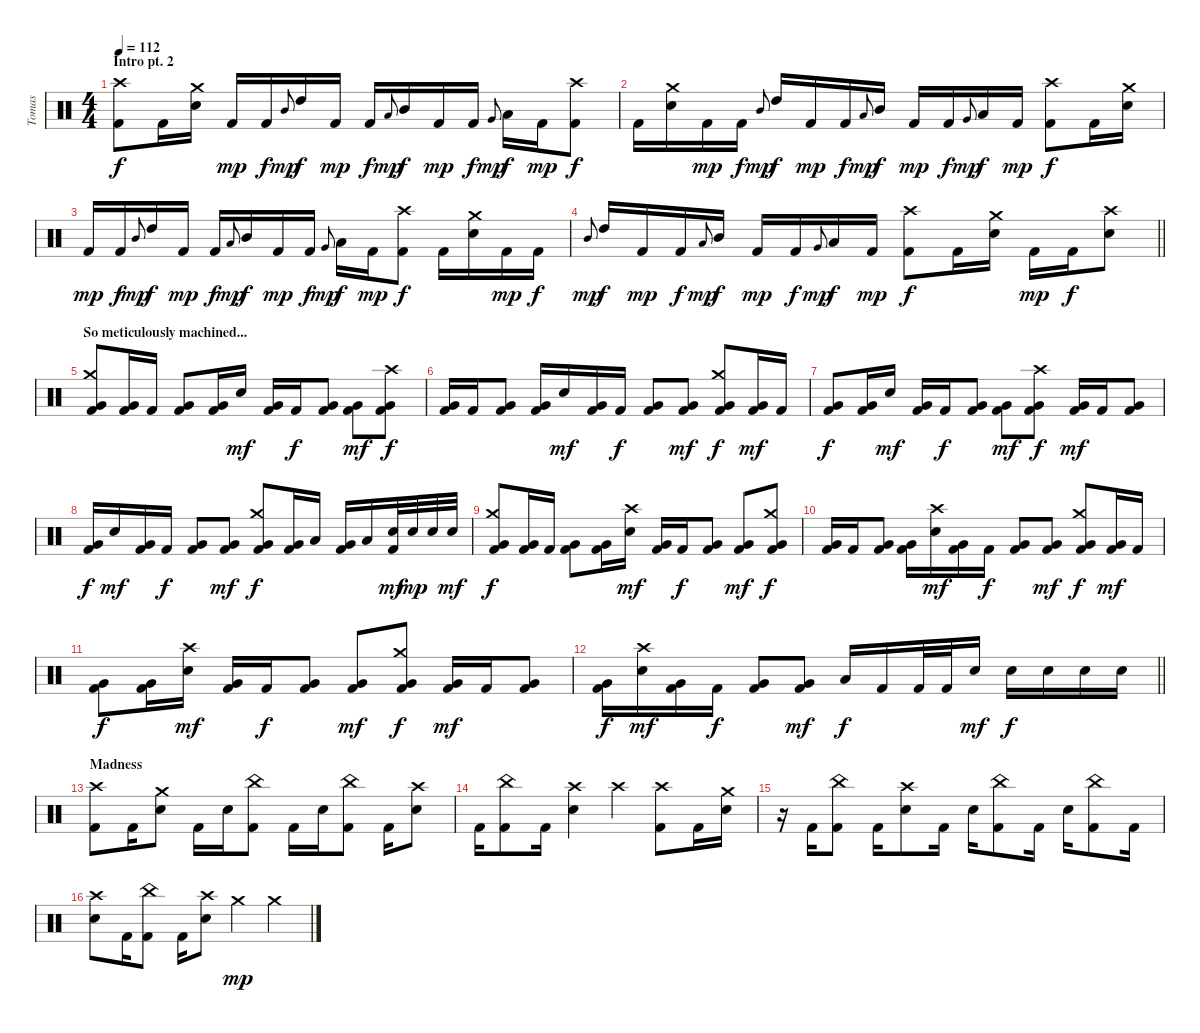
\track ("Tomas" "Tomas") {instrument percussion}
\staff {score}
\articulation defaults
\ts (4 4)
\section ("" "Intro pt. 2")
\tempo 112
\clef neutral
\ks c
("Crash high (hit)" "Kick (hit) 2").8{dy f} "Kick (hit) 2".16 ("Crash medium (hit)" "Electric Snare (hit)").16 "Kick (hit) 2".16{dy mp} "Kick (hit) 2".16{dy f} "Mid Tom (hit)".8{gr onbeat dy mp} "High Tom (hit)".16{dy f} "Kick (hit) 2".16{dy mp} "Kick (hit) 2".16{dy f} "Low Tom (hit)".8{gr onbeat dy mp} "Mid Tom (hit)".16{dy f} "Kick (hit) 2".16{dy mp} "Kick (hit) 2".16{dy f} "Very Low Tom (hit)".8{gr onbeat dy mp} "Low Tom (hit)".16{dy f} "Kick (hit) 2".16{dy mp} ("Crash high (hit)" "Kick (hit) 2").8{dy f} |
"Kick (hit) 2".16 ("Crash medium (hit)" "Electric Snare (hit)").16 "Kick (hit) 2".16{dy mp} "Kick (hit) 2".16{dy f} "Mid Tom (hit)".8{gr onbeat dy mp} "High Tom (hit)".16{dy f} "Kick (hit) 2".16{dy mp} "Kick (hit) 2".16{dy f} "Low Tom (hit)".8{gr onbeat dy mp} "Mid Tom (hit)".16{dy f} "Kick (hit) 2".16{dy mp} "Kick (hit) 2".16{dy f} "Very Low Tom (hit)".8{gr onbeat dy mp} "Low Tom (hit)".16{dy f} "Kick (hit) 2".16{dy mp} ("Crash high (hit)" "Kick (hit) 2").8{dy f} "Kick (hit) 2".16 ("Crash medium (hit)" "Electric Snare (hit)").16 |
"Kick (hit) 2".16{dy mp} "Kick (hit) 2".16{dy f} "Mid Tom (hit)".8{gr onbeat dy mp} "High Tom (hit)".16{dy f} "Kick (hit) 2".16{dy mp} "Kick (hit) 2".16{dy f} "Low Tom (hit)".8{gr onbeat dy mp} "Mid Tom (hit)".16{dy f} "Kick (hit) 2".16{dy mp} "Kick (hit) 2".16{dy f} "Very Low Tom (hit)".8{gr onbeat dy mp} "Low Tom (hit)".16{dy f} "Kick (hit) 2".16{dy mp} ("Crash high (hit)" "Kick (hit) 2").8{dy f} "Kick (hit) 2".16 ("Crash medium (hit)" "Electric Snare (hit)").16 "Kick (hit) 2".16{dy mp} "Kick (hit) 2".16{dy f} |
\barLineRight lightlight "Mid Tom (hit)".8{gr onbeat dy mp} "High Tom (hit)".16{dy f} "Kick (hit) 2".16{dy mp} "Kick (hit) 2".16{dy f} "Low Tom (hit)".8{gr onbeat dy mp} "Mid Tom (hit)".16{dy f} "Kick (hit) 2".16{dy mp} "Kick (hit) 2".16{dy f} "Very Low Tom (hit)".8{gr onbeat dy mp} "Low Tom (hit)".16{dy f} "Kick (hit) 2".16{dy mp}
("Crash high (hit)" "Kick (hit) 2").8{dy f} "Kick (hit) 2".16 ("Crash medium (hit)" "Electric Snare (hit)").16 "Kick (hit) 2".16{dy mp} "Kick (hit) 2".16{dy f} ("Crash high (hit)" "Electric Snare (hit)").8 |
\section ("" "So meticulously machined...")
("Crash medium (hit)" "Very Low Tom (hit)" "Kick (hit) 2").8 ("Very Low Tom (hit)" "Kick (hit) 2").16 "Kick (hit) 2".16 ("Very Low Tom (hit)" "Kick (hit) 2").8 ("Very Low Tom (hit)" "Kick (hit) 2").16 "Electric Snare (hit)".16{dy mf} ("Very Low Tom (hit)" "Kick (hit) 2").16 "Kick (hit) 2".16{dy f} ("Very Low Tom (hit)" "Kick (hit) 2").8 ("Very Low Tom (hit)" "Kick (hit) 2").8{dy mf} ("Crash high (hit)" "Very Low Tom (hit)" "Kick (hit) 2").8{dy f} |
("Very Low Tom (hit)" "Kick (hit) 2").16 "Kick (hit) 2".16 ("Very Low Tom (hit)" "Kick (hit) 2").8 ("Very Low Tom (hit)" "Kick (hit) 2").16 "Electric Snare (hit)".16{dy mf} ("Very Low Tom (hit)" "Kick (hit) 2").16 "Kick (hit) 2".16{dy f} ("Very Low Tom (hit)" "Kick (hit) 2").8 ("Very Low Tom (hit)" "Kick (hit) 2").8{dy mf} ("Crash medium (hit)" "Very Low Tom (hit)" "Kick (hit) 2").8{dy f} ("Very Low Tom (hit)" "Kick (hit) 2").16{dy mf} "Kick (hit) 2".16 |
("Very Low Tom (hit)" "Kick (hit) 2").8{dy f} ("Very Low Tom (hit)" "Kick (hit) 2").16 "Electric Snare (hit)".16{dy mf} ("Very Low Tom (hit)" "Kick (hit) 2").16 "Kick (hit) 2".16{dy f} ("Very Low Tom (hit)" "Kick (hit) 2").8 ("Very Low Tom (hit)" "Kick (hit) 2").8{dy mf} ("Crash high (hit)" "Very Low Tom (hit)" "Kick (hit) 2").8{dy f} ("Very Low Tom (hit)" "Kick (hit) 2").16{dy mf} "Kick (hit) 2".16 ("Very Low Tom (hit)" "Kick (hit) 2").8 |
("Very Low Tom (hit)" "Kick (hit) 2").16{dy f} "Electric Snare (hit)".16{dy mf} ("Very Low Tom (hit)" "Kick (hit) 2").16 "Kick (hit) 2".16{dy f} ("Very Low Tom (hit)" "Kick (hit) 2").8 ("Very Low Tom (hit)" "Kick (hit) 2").8{dy mf} ("Crash medium (hit)" "Very Low Tom (hit)" "Kick (hit) 2").8{dy f} ("Very Low Tom (hit)" "Kick (hit) 2").16 "Low Tom (hit)".16 ("Very Low Tom (hit)" "Kick (hit) 2").16 "Low Tom (hit)".16 ("Electric Snare (hit)" "Kick (hit) 2").32{dy mf} "Electric Snare (hit)".32{dy mp} "Electric Snare (hit)".32 "Electric Snare (hit)".32{dy mf} |
("Crash medium (hit)" "Very Low Tom (hit)" "Kick (hit) 2").8{dy f} ("Very Low Tom (hit)" "Kick (hit) 2").16 "Kick (hit) 2".16 ("Very Low Tom (hit)" "Kick (hit) 2").8 ("Very Low Tom (hit)" "Kick (hit) 2").16 ("Crash high (hit)" "Electric Snare (hit)").16{dy mf} ("Very Low Tom (hit)" "Kick (hit) 2").16 "Kick (hit) 2".16{dy f} ("Very Low Tom (hit)" "Kick (hit) 2").8 ("Very Low Tom (hit)" "Kick (hit) 2").8{dy mf} ("Crash medium (hit)" "Very Low Tom (hit)" "Kick (hit) 2").8{dy f} |
("Very Low Tom (hit)" "Kick (hit) 2").16 "Kick (hit) 2".16 ("Very Low Tom (hit)" "Kick (hit) 2").8 ("Very Low Tom (hit)" "Kick (hit) 2").16 ("Crash high (hit)" "Electric Snare (hit)").16{dy mf} ("Very Low Tom (hit)" "Kick (hit) 2").16 "Kick (hit) 2".16{dy f} ("Very Low Tom (hit)" "Kick (hit) 2").8 ("Very Low Tom (hit)" "Kick (hit) 2").8{dy mf} ("Crash medium (hit)" "Very Low Tom (hit)" "Kick (hit) 2").8{dy f} ("Very Low Tom (hit)" "Kick (hit) 2").16{dy mf} "Kick (hit) 2".16 |
("Very Low Tom (hit)" "Kick (hit) 2").8{dy f} ("Very Low Tom (hit)" "Kick (hit) 2").16 ("Crash high (hit)" "Electric Snare (hit)").16{dy mf} ("Very Low Tom (hit)" "Kick (hit) 2").16 "Kick (hit) 2".16{dy f} ("Very Low Tom (hit)" "Kick (hit) 2").8 ("Very Low Tom (hit)" "Kick (hit) 2").8{dy mf} ("Crash medium (hit)" "Very Low Tom (hit)" "Kick (hit) 2").8{dy f} ("Very Low Tom (hit)" "Kick (hit) 2").16{dy mf} "Kick (hit) 2".16 ("Very Low Tom (hit)" "Kick (hit) 2").8 |
\barLineRight lightlight
("Very Low Tom (hit)" "Kick (hit) 2").16{dy f} ("Crash high (hit)" "Electric Snare (hit)").16{dy mf} ("Very Low Tom (hit)" "Kick (hit) 2").16 "Kick (hit) 2".16{dy f} ("Very Low Tom (hit)" "Kick (hit) 2").8 ("Very Low Tom (hit)" "Kick (hit) 2").8{dy mf} "Low Tom (hit)".16{dy f} "Kick (hit) 2".16 "Kick (hit) 2".32 "Kick (hit) 2".32 "Electric Snare (hit)".16{dy mf} "Electric Snare (hit)".16{dy f} "Electric Snare (hit)".16 "Electric Snare (hit)".16 "Electric Snare (hit)".16 |
\section ("" "Madness")
("Crash high (hit)" "Kick (hit) 2").8 "Kick (hit) 2".16 ("Crash medium (hit)" "Electric Snare (hit)").8 "Kick (hit) 2".16 "Electric Snare (hit)".16 ("China (hit)" "Kick (hit) 2").8 "Kick (hit) 2".16 "Electric Snare (hit)".16 ("China (hit)" "Kick (hit) 2").8 "Kick (hit) 2".16 ("Crash high (hit)" "Electric Snare (hit)").8 |
"Kick (hit) 2".16 ("China (hit)" "Kick (hit) 2").8 "Kick (hit) 2".16 ("Crash high (hit)" "Electric Snare (hit)").4 "Crash high (hit)".4 ("Crash high (hit)" "Kick (hit) 2").8 "Kick (hit) 2".16 ("Crash medium (hit)" "Electric Snare (hit)").16 |
r.16 "Kick (hit) 2".16 ("China (hit)" "Kick (hit) 2").8 "Kick (hit) 2".16 ("Crash high (hit)" "Electric Snare (hit)").8 "Kick (hit) 2".16 "Electric Snare (hit)".16 ("China (hit)" "Kick (hit) 2").8 "Kick (hit) 2".16 "Electric Snare (hit)".16 ("China (hit)" "Kick (hit) 2").8 "Kick (hit) 2".16 |
("Crash high (hit)" "Electric Snare (hit)").8 "Kick (hit) 2".16 ("China (hit)" "Kick (hit) 2").8 "Kick (hit) 2".16 ("Crash high (hit)" "Electric Snare (hit)").8 "Crash medium (hit)".4{dy mp} "Crash medium (hit)".4
